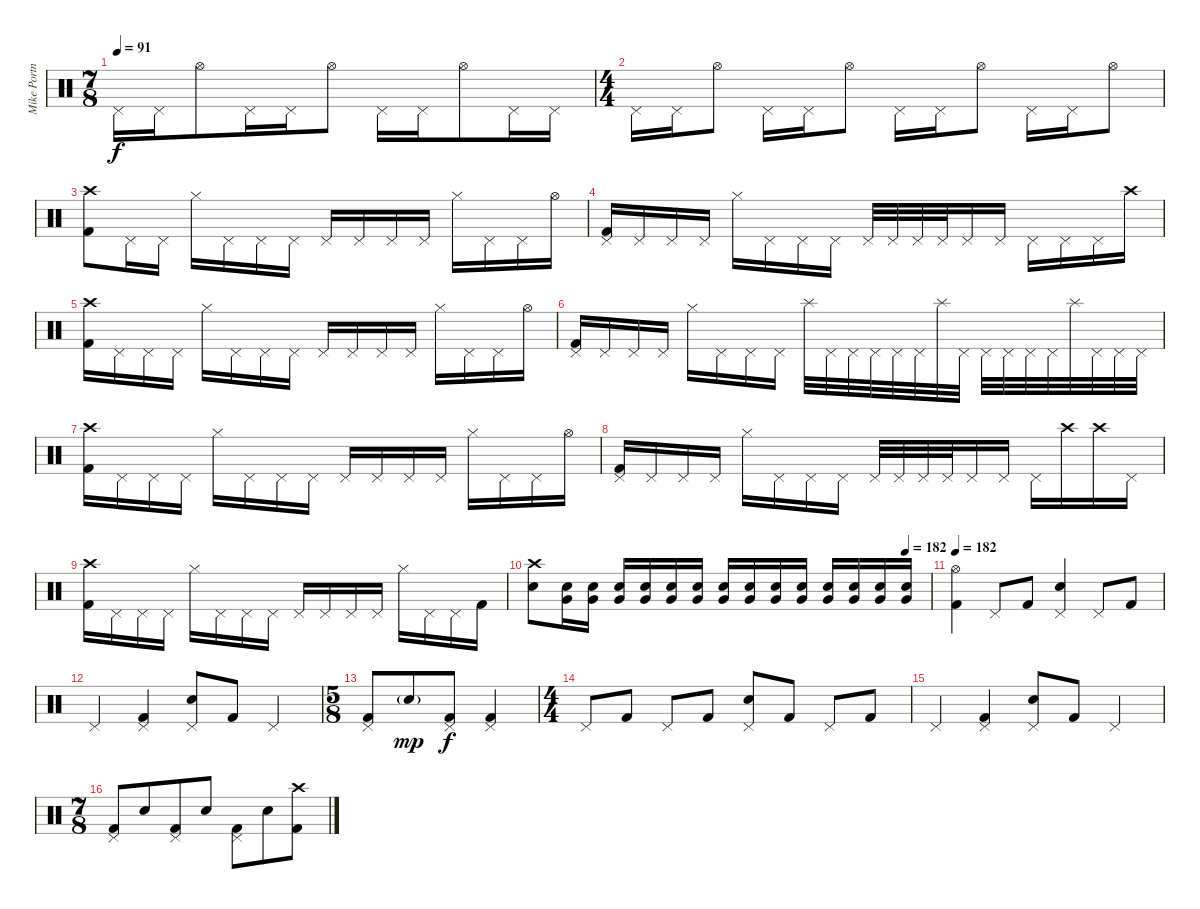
\track ("Mike Portnoy" "Mike Portn") {instrument percussion}
\staff {score}
\articulation defaults
\ts (7 8)
\tempo 91
\clef neutral
\ks c "Pedal Hi-Hat (hit)".16{dy f} "Pedal Hi-Hat (hit)".16 "Hi-Hat (open)".8 "Pedal Hi-Hat (hit)".16 "Pedal Hi-Hat (hit)".16 "Hi-Hat (open)".8 "Pedal Hi-Hat (hit)".16 "Pedal Hi-Hat (hit)".16 "Hi-Hat (open)".8 "Pedal Hi-Hat (hit)".16 "Pedal Hi-Hat (hit)".16
|
\ts (4 4)
"Pedal Hi-Hat (hit)".16 "Pedal Hi-Hat (hit)".16 "Hi-Hat (open)".8 "Pedal Hi-Hat (hit)".16 "Pedal Hi-Hat (hit)".16 "Hi-Hat (open)".8 "Pedal Hi-Hat (hit)".16 "Pedal Hi-Hat (hit)".16 "Hi-Hat (open)".8 "Pedal Hi-Hat (hit)".16 "Pedal Hi-Hat (hit)".16 "Hi-Hat (open)".8 |
("Crash high (hit)" "Kick (hit) 2").8 "Pedal Hi-Hat (hit)".16 "Pedal Hi-Hat (hit)".16 "Hi-Hat (closed)".16 "Pedal Hi-Hat (hit)".16 "Pedal Hi-Hat (hit)".16 "Pedal Hi-Hat (hit)".16 "Pedal Hi-Hat (hit)".16 "Pedal Hi-Hat (hit)".16 "Pedal Hi-Hat (hit)".16 "Pedal Hi-Hat (hit)".16 "Hi-Hat (closed)".16 "Pedal Hi-Hat (hit)".16 "Pedal Hi-Hat (hit)".16 "Hi-Hat (open)".16 |
("Pedal Hi-Hat (hit)" "Kick (hit) 2").16 "Pedal Hi-Hat (hit)".16 "Pedal Hi-Hat (hit)".16 "Pedal Hi-Hat (hit)".16 "Hi-Hat (closed)".16 "Pedal Hi-Hat (hit)".16 "Pedal Hi-Hat (hit)".16 "Pedal Hi-Hat (hit)".16 "Pedal Hi-Hat (hit)".32 "Pedal Hi-Hat (hit)".32 "Pedal Hi-Hat (hit)".32 "Pedal Hi-Hat (hit)".32 "Pedal Hi-Hat (hit)".16 "Pedal Hi-Hat (hit)".16 "Pedal Hi-Hat (hit)".16 "Pedal Hi-Hat (hit)".16 "Pedal Hi-Hat (hit)".16 "Crash high (hit)".16 |
("Crash high (hit)" "Kick (hit) 2").16 "Pedal Hi-Hat (hit)".16 "Pedal Hi-Hat (hit)".16 "Pedal Hi-Hat (hit)".16 "Hi-Hat (closed)".16 "Pedal Hi-Hat (hit)".16 "Pedal Hi-Hat (hit)".16 "Pedal Hi-Hat (hit)".16 "Pedal Hi-Hat (hit)".16 "Pedal Hi-Hat (hit)".16 "Pedal Hi-Hat (hit)".16 "Pedal Hi-Hat (hit)".16 "Hi-Hat (closed)".16 "Pedal Hi-Hat (hit)".16 "Pedal Hi-Hat (hit)".16 "Hi-Hat (open)".16 |
("Pedal Hi-Hat (hit)" "Kick (hit) 2").16 "Pedal Hi-Hat (hit)".16 "Pedal Hi-Hat (hit)".16 "Pedal Hi-Hat (hit)".16 "Hi-Hat (closed)".16 "Pedal Hi-Hat (hit)".16 "Pedal Hi-Hat (hit)".16 "Pedal Hi-Hat (hit)".16 "Splash (hit)".32 "Pedal Hi-Hat (hit)".32 "Pedal Hi-Hat (hit)".32 "Pedal Hi-Hat (hit)".32 "Pedal Hi-Hat (hit)".32 "Pedal Hi-Hat (hit)".32 "Splash (hit)".32 "Pedal Hi-Hat (hit)".32 "Pedal Hi-Hat (hit)".32 "Pedal Hi-Hat (hit)".32 "Pedal Hi-Hat (hit)".32 "Pedal Hi-Hat (hit)".32 "Splash (hit)".32 "Pedal Hi-Hat (hit)".32 "Pedal Hi-Hat (hit)".32 "Pedal Hi-Hat (hit)".32 |
("Crash high (hit)" "Kick (hit) 2").16 "Pedal Hi-Hat (hit)".16 "Pedal Hi-Hat (hit)".16 "Pedal Hi-Hat (hit)".16 "Hi-Hat (closed)".16 "Pedal Hi-Hat (hit)".16 "Pedal Hi-Hat (hit)".16 "Pedal Hi-Hat (hit)".16 "Pedal Hi-Hat (hit)".16 "Pedal Hi-Hat (hit)".16 "Pedal Hi-Hat (hit)".16 "Pedal Hi-Hat (hit)".16 "Hi-Hat (closed)".16 "Pedal Hi-Hat (hit)".16 "Pedal Hi-Hat (hit)".16 "Hi-Hat (open)".16 |
("Pedal Hi-Hat (hit)" "Kick (hit) 2").16 "Pedal Hi-Hat (hit)".16 "Pedal Hi-Hat (hit)".16 "Pedal Hi-Hat (hit)".16 "Hi-Hat (closed)".16 "Pedal Hi-Hat (hit)".16 "Pedal Hi-Hat (hit)".16 "Pedal Hi-Hat (hit)".16 "Pedal Hi-Hat (hit)".32 "Pedal Hi-Hat (hit)".32 "Pedal Hi-Hat (hit)".32 "Pedal Hi-Hat (hit)".32 "Pedal Hi-Hat (hit)".16 "Pedal Hi-Hat (hit)".16 "Pedal Hi-Hat (hit)".16 "Crash high (hit)".16 "Crash high (hit)".16 "Pedal Hi-Hat (hit)".16 |
("Crash high (hit)" "Kick (hit) 2").16 "Pedal Hi-Hat (hit)".16 "Pedal Hi-Hat (hit)".16 "Pedal Hi-Hat (hit)".16 "Hi-Hat (closed)".16 "Pedal Hi-Hat (hit)".16 "Pedal Hi-Hat (hit)".16 "Pedal Hi-Hat (hit)".16 "Pedal Hi-Hat (hit)".16 "Pedal Hi-Hat (hit)".16 "Pedal Hi-Hat (hit)".16 "Pedal Hi-Hat (hit)".16 "Hi-Hat (closed)".16 "Pedal Hi-Hat (hit)".16 "Pedal Hi-Hat (hit)".16 "Kick (hit) 2".16 |
\tempo (182 0.9375)
("Crash high (hit)" "Electric Snare (hit)").8 ("Electric Snare (hit)" "Very Low Tom (hit)").16 ("Electric Snare (hit)" "Very Low Tom (hit)").16 ("Electric Snare (hit)" "Very Low Tom (hit)").16 ("Electric Snare (hit)" "Very Low Tom (hit)").16 ("Electric Snare (hit)" "Very Low Tom (hit)").16 ("Electric Snare (hit)" "Very Low Tom (hit)").16 ("Electric Snare (hit)" "Very Low Tom (hit)").16 ("Electric Snare (hit)" "Very Low Tom (hit)").16 ("Electric Snare (hit)" "Very Low Tom (hit)").16 ("Electric Snare (hit)" "Very Low Tom (hit)").16 ("Electric Snare (hit)" "Very Low Tom (hit)").16 ("Electric Snare (hit)" "Very Low Tom (hit)").16 ("Electric Snare (hit)" "Very Low Tom (hit)").16 ("Electric Snare (hit)" "Very Low Tom (hit)").16 |
\tempo 182
("Hi-Hat (open)" "Kick (hit) 2").4 "Pedal Hi-Hat (hit)".8 "Kick (hit) 2".8 ("Pedal Hi-Hat (hit)" "Electric Snare (hit)").4 "Pedal Hi-Hat (hit)".8 "Kick (hit) 2".8 |
"Pedal Hi-Hat (hit)".4 ("Pedal Hi-Hat (hit)" "Kick (hit) 2").4 ("Pedal Hi-Hat (hit)" "Electric Snare (hit)").8 "Kick (hit) 2".8 "Pedal Hi-Hat (hit)".4 |
\ts (5 8)
("Pedal Hi-Hat (hit)" "Kick (hit) 2").8 "Electric Snare (hit)"{g}.8{dy mp} ("Pedal Hi-Hat (hit)" "Kick (hit) 2").8{dy f} ("Pedal Hi-Hat (hit)" "Kick (hit) 2").4 |
\ts (4 4)
"Pedal Hi-Hat (hit)".8 "Kick (hit) 2".8 "Pedal Hi-Hat (hit)".8 "Kick (hit) 2".8 ("Pedal Hi-Hat (hit)" "Electric Snare (hit)").8 "Kick (hit) 2".8 "Pedal Hi-Hat (hit)".8 "Kick (hit) 2".8 |
"Pedal Hi-Hat (hit)".4 ("Pedal Hi-Hat (hit)" "Kick (hit) 2").4 ("Pedal Hi-Hat (hit)" "Electric Snare (hit)").8 "Kick (hit) 2".8 "Pedal Hi-Hat (hit)".4 |
\ts (7 8)
("Pedal Hi-Hat (hit)" "Kick (hit) 2").8 "Electric Snare (hit)".8 ("Pedal Hi-Hat (hit)" "Kick (hit) 2").8 "Electric Snare (hit)".8 ("Pedal Hi-Hat (hit)" "Kick (hit) 2").8 "Electric Snare (hit)".8 ("Crash high (hit)" "Kick (hit) 2").8
